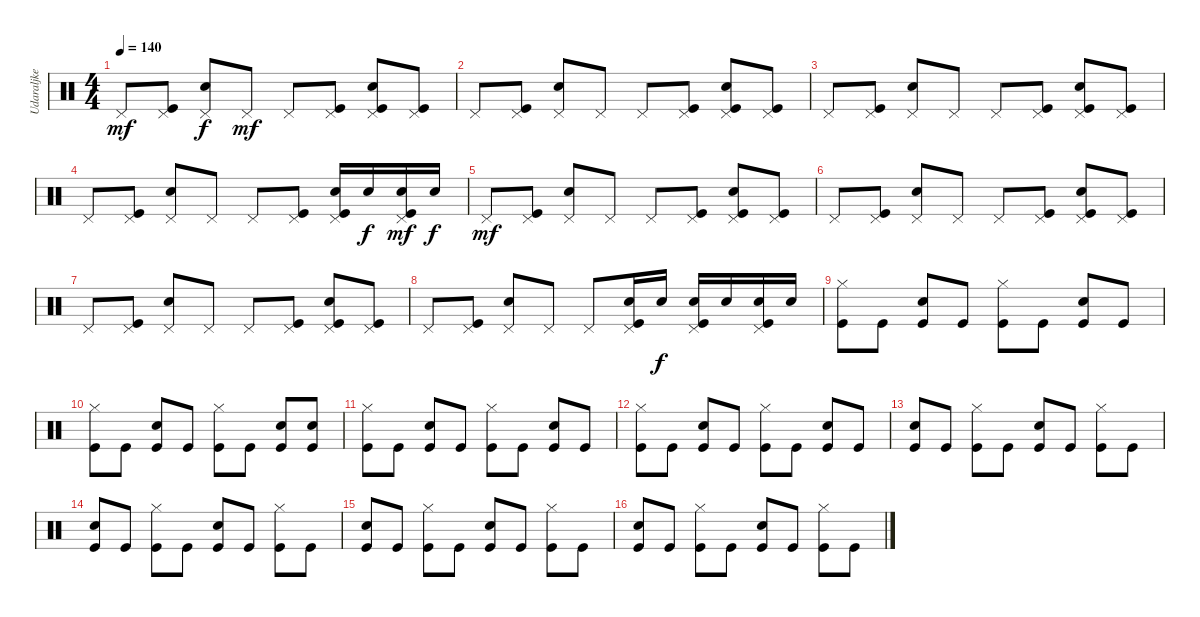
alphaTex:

\track ("Udaraljke" "Udaraljke") {instrument percussion}
\staff {score}
\articulation defaults
\ts (4 4)
\tempo 140
\clef neutral
\ks c "Pedal Hi-Hat (hit)".8{dy mf}
("Kick (hit)" "Pedal Hi-Hat (hit)").8 ("Pedal Hi-Hat (hit)" "Snare (hit) 2").8{dy f} "Pedal Hi-Hat (hit)".8{dy mf} "Pedal Hi-Hat (hit)".8 ("Kick (hit)" "Pedal Hi-Hat (hit)").8 ("Kick (hit)" "Pedal Hi-Hat (hit)" "Snare (hit) 2").8 ("Kick (hit)" "Pedal Hi-Hat (hit)").8 |
"Pedal Hi-Hat (hit)".8 ("Kick (hit)" "Pedal Hi-Hat (hit)").8 ("Pedal Hi-Hat (hit)" "Snare (hit) 2").8 "Pedal Hi-Hat (hit)".8 "Pedal Hi-Hat (hit)".8 ("Kick (hit)" "Pedal Hi-Hat (hit)").8 ("Kick (hit)" "Pedal Hi-Hat (hit)" "Snare (hit) 2").8 ("Kick (hit)" "Pedal Hi-Hat (hit)").8 |
"Pedal Hi-Hat (hit)".8 ("Kick (hit)" "Pedal Hi-Hat (hit)").8 ("Pedal Hi-Hat (hit)" "Snare (hit) 2").8 "Pedal Hi-Hat (hit)".8 "Pedal Hi-Hat (hit)".8 ("Kick (hit)" "Pedal Hi-Hat (hit)").8 ("Kick (hit)" "Pedal Hi-Hat (hit)" "Snare (hit) 2").8 ("Kick (hit)" "Pedal Hi-Hat (hit)").8 |
"Pedal Hi-Hat (hit)".8 ("Kick (hit)" "Pedal Hi-Hat (hit)").8 ("Pedal Hi-Hat (hit)" "Snare (hit) 2").8 "Pedal Hi-Hat (hit)".8 "Pedal Hi-Hat (hit)".8 ("Kick (hit)" "Pedal Hi-Hat (hit)").8 ("Kick (hit)" "Pedal Hi-Hat (hit)" "Snare (hit) 2").16 "Snare (hit) 2".16{dy f} ("Kick (hit)" "Pedal Hi-Hat (hit)" "Snare (hit) 2").16{dy mf} "Snare (hit) 2".16{dy f} |
"Pedal Hi-Hat (hit)".8{dy mf} ("Kick (hit)" "Pedal Hi-Hat (hit)").8 ("Pedal Hi-Hat (hit)" "Snare (hit) 2").8 "Pedal Hi-Hat (hit)".8 "Pedal Hi-Hat (hit)".8 ("Kick (hit)" "Pedal Hi-Hat (hit)").8 ("Kick (hit)" "Pedal Hi-Hat (hit)" "Snare (hit) 2").8 ("Kick (hit)" "Pedal Hi-Hat (hit)").8 |
"Pedal Hi-Hat (hit)".8 ("Kick (hit)" "Pedal Hi-Hat (hit)").8 ("Pedal Hi-Hat (hit)" "Snare (hit) 2").8 "Pedal Hi-Hat (hit)".8 "Pedal Hi-Hat (hit)".8 ("Kick (hit)" "Pedal Hi-Hat (hit)").8 ("Kick (hit)" "Pedal Hi-Hat (hit)" "Snare (hit) 2").8 ("Kick (hit)" "Pedal Hi-Hat (hit)").8 |
"Pedal Hi-Hat (hit)".8 ("Kick (hit)" "Pedal Hi-Hat (hit)").8 ("Pedal Hi-Hat (hit)" "Snare (hit) 2").8 "Pedal Hi-Hat (hit)".8 "Pedal Hi-Hat (hit)".8 ("Kick (hit)" "Pedal Hi-Hat (hit)").8 ("Kick (hit)" "Pedal Hi-Hat (hit)" "Snare (hit) 2").8 ("Kick (hit)" "Pedal Hi-Hat (hit)").8 |
"Pedal Hi-Hat (hit)".8 ("Kick (hit)" "Pedal Hi-Hat (hit)").8 ("Pedal Hi-Hat (hit)" "Snare (hit) 2").8 "Pedal Hi-Hat (hit)".8 "Pedal Hi-Hat (hit)".8 ("Kick (hit)" "Pedal Hi-Hat (hit)" "Snare (hit) 2").16 "Snare (hit) 2".16{dy f} ("Kick (hit)" "Pedal Hi-Hat (hit)" "Snare (hit) 2").16 "Snare (hit) 2".16 ("Kick (hit)" "Pedal Hi-Hat (hit)" "Snare (hit) 2").16 "Snare (hit) 2".16 |
("Kick (hit)" "Hi-Hat (closed)").8 "Kick (hit)".8 ("Kick (hit)" "Snare (hit) 2").8 "Kick (hit)".8 ("Kick (hit)" "Hi-Hat (closed)").8 "Kick (hit)".8 ("Kick (hit)" "Snare (hit) 2").8 "Kick (hit)".8 |
("Kick (hit)" "Hi-Hat (closed)").8 "Kick (hit)".8 ("Kick (hit)" "Snare (hit) 2").8 "Kick (hit)".8 ("Kick (hit)" "Hi-Hat (closed)").8 "Kick (hit)".8 ("Kick (hit)" "Snare (hit) 2").8 ("Kick (hit)" "Snare (hit) 2").8 |
("Kick (hit)" "Hi-Hat (closed)").8 "Kick (hit)".8 ("Kick (hit)" "Snare (hit) 2").8 "Kick (hit)".8 ("Kick (hit)" "Hi-Hat (closed)").8 "Kick (hit)".8 ("Kick (hit)" "Snare (hit) 2").8 "Kick (hit)".8 |
("Kick (hit)" "Hi-Hat (closed)").8 "Kick (hit)".8 ("Kick (hit)" "Snare (hit) 2").8 "Kick (hit)".8 ("Kick (hit)" "Hi-Hat (closed)").8 "Kick (hit)".8 ("Kick (hit)" "Snare (hit) 2").8 "Kick (hit)".8 |
("Kick (hit)" "Snare (hit) 2").8 "Kick (hit)".8 ("Kick (hit)" "Hi-Hat (closed)").8 "Kick (hit)".8 ("Kick (hit)" "Snare (hit) 2").8 "Kick (hit)".8 ("Kick (hit)" "Hi-Hat (closed)").8 "Kick (hit)".8 |
("Kick (hit)" "Snare (hit) 2").8 "Kick (hit)".8 ("Kick (hit)" "Hi-Hat (closed)").8 "Kick (hit)".8 ("Kick (hit)" "Snare (hit) 2").8 "Kick (hit)".8 ("Kick (hit)" "Hi-Hat (closed)").8 "Kick (hit)".8 |
("Kick (hit)" "Snare (hit) 2").8 "Kick (hit)".8 ("Kick (hit)" "Hi-Hat (closed)").8 "Kick (hit)".8 ("Kick (hit)" "Snare (hit) 2").8 "Kick (hit)".8 ("Kick (hit)" "Hi-Hat (closed)").8 "Kick (hit)".8 |
("Kick (hit)" "Snare (hit) 2").8 "Kick (hit)".8 ("Kick (hit)" "Hi-Hat (closed)").8 "Kick (hit)".8 ("Kick (hit)" "Snare (hit) 2").8 "Kick (hit)".8 ("Kick (hit)" "Hi-Hat (closed)").8 "Kick (hit)".8
